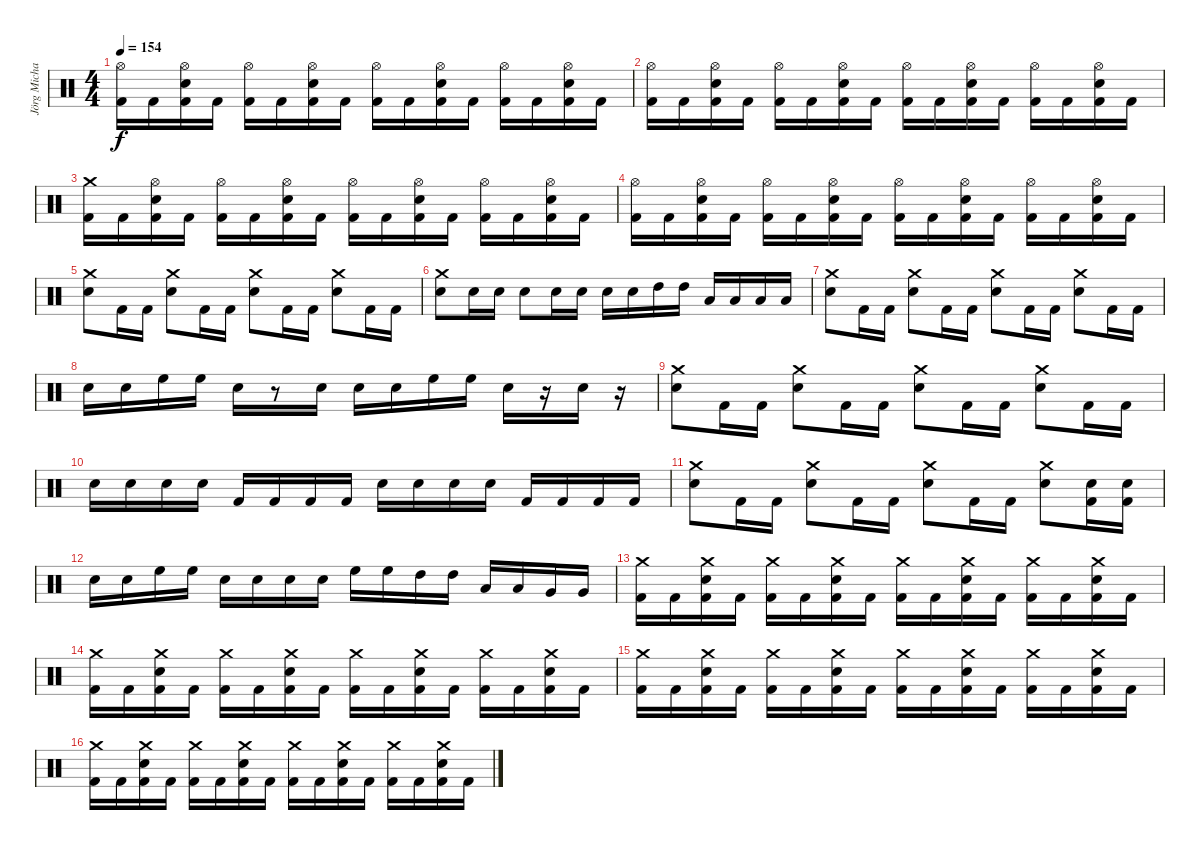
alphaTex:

\track ("Jörg Michael" "Jörg Micha") {instrument percussion}
\staff {score}
\articulation defaults
\ts (4 4)
\tempo 154
\clef neutral
\ks c
("Hi-Hat (open)" "Kick (hit) 2").16{dy f} "Kick (hit) 2".16 ("Snare (hit) 2" "Hi-Hat (open)" "Kick (hit) 2").16 "Kick (hit) 2".16 ("Hi-Hat (open)" "Kick (hit) 2").16 "Kick (hit) 2".16 ("Snare (hit) 2" "Hi-Hat (open)" "Kick (hit) 2").16 "Kick (hit) 2".16 ("Hi-Hat (open)" "Kick (hit) 2").16 "Kick (hit) 2".16 ("Snare (hit) 2" "Hi-Hat (open)" "Kick (hit) 2").16 "Kick (hit) 2".16 ("Hi-Hat (open)" "Kick (hit) 2").16 "Kick (hit) 2".16 ("Snare (hit) 2" "Hi-Hat (open)" "Kick (hit) 2").16 "Kick (hit) 2".16 |
("Hi-Hat (open)" "Kick (hit) 2").16 "Kick (hit) 2".16 ("Snare (hit) 2" "Hi-Hat (open)" "Kick (hit) 2").16 "Kick (hit) 2".16 ("Hi-Hat (open)" "Kick (hit) 2").16 "Kick (hit) 2".16 ("Snare (hit) 2" "Hi-Hat (open)" "Kick (hit) 2").16 "Kick (hit) 2".16 ("Hi-Hat (open)" "Kick (hit) 2").16 "Kick (hit) 2".16 ("Snare (hit) 2" "Hi-Hat (open)" "Kick (hit) 2").16 "Kick (hit) 2".16 ("Hi-Hat (open)" "Kick (hit) 2").16 "Kick (hit) 2".16 ("Snare (hit) 2" "Hi-Hat (open)" "Kick (hit) 2").16 "Kick (hit) 2".16 |
("Crash medium (hit)" "Kick (hit) 2").16 "Kick (hit) 2".16 ("Snare (hit) 2" "Hi-Hat (open)" "Kick (hit) 2").16 "Kick (hit) 2".16 ("Hi-Hat (open)" "Kick (hit) 2").16 "Kick (hit) 2".16 ("Snare (hit) 2" "Hi-Hat (open)" "Kick (hit) 2").16 "Kick (hit) 2".16 ("Hi-Hat (open)" "Kick (hit) 2").16 "Kick (hit) 2".16 ("Snare (hit) 2" "Hi-Hat (open)" "Kick (hit) 2").16 "Kick (hit) 2".16 ("Hi-Hat (open)" "Kick (hit) 2").16 "Kick (hit) 2".16 ("Snare (hit) 2" "Hi-Hat (open)" "Kick (hit) 2").16 "Kick (hit) 2".16 |
("Hi-Hat (open)" "Kick (hit) 2").16 "Kick (hit) 2".16 ("Snare (hit) 2" "Hi-Hat (open)" "Kick (hit) 2").16 "Kick (hit) 2".16 ("Hi-Hat (open)" "Kick (hit) 2").16 "Kick (hit) 2".16 ("Snare (hit) 2" "Hi-Hat (open)" "Kick (hit) 2").16 "Kick (hit) 2".16 ("Hi-Hat (open)" "Kick (hit) 2").16 "Kick (hit) 2".16 ("Snare (hit) 2" "Hi-Hat (open)" "Kick (hit) 2").16 "Kick (hit) 2".16 ("Hi-Hat (open)" "Kick (hit) 2").16 "Kick (hit) 2".16 ("Snare (hit) 2" "Hi-Hat (open)" "Kick (hit) 2").16 "Kick (hit) 2".16 |
("Snare (hit) 2" "Crash medium (hit)").8 "Kick (hit) 2".16 "Kick (hit) 2".16 ("Snare (hit) 2" "Crash medium (hit)").8 "Kick (hit) 2".16 "Kick (hit) 2".16 ("Snare (hit) 2" "Crash medium (hit)").8 "Kick (hit) 2".16 "Kick (hit) 2".16 ("Snare (hit) 2" "Crash medium (hit)").8 "Kick (hit) 2".16 "Kick (hit) 2".16 |
("Snare (hit) 2" "Crash medium (hit)").8 "Snare (hit) 2".16 "Snare (hit) 2".16 "Snare (hit) 2".8 "Snare (hit) 2".16 "Snare (hit) 2".16 "Snare (hit) 2".16 "Snare (hit) 2".16 "High Tom (hit)".16 "High Tom (hit)".16 "Low Tom (hit)".16 "Low Tom (hit)".16 "Low Tom (hit)".16 "Low Tom (hit)".16 |
("Snare (hit) 2" "Crash medium (hit)").8 "Kick (hit) 2".16 "Kick (hit) 2".16 ("Snare (hit) 2" "Crash medium (hit)").8 "Kick (hit) 2".16 "Kick (hit) 2".16 ("Snare (hit) 2" "Crash medium (hit)").8 "Kick (hit) 2".16 "Kick (hit) 2".16 ("Snare (hit) 2" "Crash medium (hit)").8 "Kick (hit) 2".16 "Kick (hit) 2".16 |
"Snare (hit) 2".16 "Snare (hit) 2".16 "High Floor Tom (hit)".16 "High Floor Tom (hit)".16 "Snare (hit) 2".16 r.8 "Snare (hit) 2".16 "Snare (hit) 2".16 "Snare (hit) 2".16 "High Floor Tom (hit)".16 "High Floor Tom (hit)".16 "Snare (hit) 2".16 r.16 "Snare (hit) 2".16 r.16 |
("Snare (hit) 2" "Crash medium (hit)").8 "Kick (hit) 2".16 "Kick (hit) 2".16 ("Snare (hit) 2" "Crash medium (hit)").8 "Kick (hit) 2".16 "Kick (hit) 2".16 ("Snare (hit) 2" "Crash medium (hit)").8 "Kick (hit) 2".16 "Kick (hit) 2".16 ("Snare (hit) 2" "Crash medium (hit)").8 "Kick (hit) 2".16 "Kick (hit) 2".16 |
"Snare (hit) 2".16 "Snare (hit) 2".16 "Snare (hit) 2".16 "Snare (hit) 2".16 "Kick (hit) 2".16 "Kick (hit) 2".16 "Kick (hit) 2".16 "Kick (hit) 2".16 "Snare (hit) 2".16 "Snare (hit) 2".16 "Snare (hit) 2".16 "Snare (hit) 2".16 "Kick (hit) 2".16 "Kick (hit) 2".16 "Kick (hit) 2".16 "Kick (hit) 2".16 |
("Snare (hit) 2" "Crash medium (hit)").8 "Kick (hit) 2".16 "Kick (hit) 2".16 ("Snare (hit) 2" "Crash medium (hit)").8 "Kick (hit) 2".16 "Kick (hit) 2".16 ("Snare (hit) 2" "Crash medium (hit)").8 "Kick (hit) 2".16 "Kick (hit) 2".16 ("Snare (hit) 2" "Crash medium (hit)").8 ("Snare (hit) 2" "Kick (hit) 2").16 ("Snare (hit) 2" "Kick (hit) 2").16 |
"Snare (hit) 2".16 "Snare (hit) 2".16 "High Floor Tom (hit)".16 "High Floor Tom (hit)".16 "Snare (hit) 2".16 "Snare (hit) 2".16 "Snare (hit) 2".16 "Snare (hit) 2".16 "High Floor Tom (hit)".16 "High Floor Tom (hit)".16 "High Tom (hit)".16 "High Tom (hit)".16 "Low Tom (hit)".16 "Low Tom (hit)".16 "Very Low Tom (hit)".16 "Very Low Tom (hit)".16 |
("Crash medium (hit)" "Kick (hit) 2").16 "Kick (hit) 2".16 ("Snare (hit) 2" "Crash medium (hit)" "Kick (hit) 2").16 "Kick (hit) 2".16 ("Crash medium (hit)" "Kick (hit) 2").16 "Kick (hit) 2".16 ("Snare (hit) 2" "Crash medium (hit)" "Kick (hit) 2").16 "Kick (hit) 2".16 ("Crash medium (hit)" "Kick (hit) 2").16 "Kick (hit) 2".16 ("Snare (hit) 2" "Crash medium (hit)" "Kick (hit) 2").16 "Kick (hit) 2".16 ("Crash medium (hit)" "Kick (hit) 2").16 "Kick (hit) 2".16 ("Snare (hit) 2" "Crash medium (hit)" "Kick (hit) 2").16 "Kick (hit) 2".16 |
("Crash medium (hit)" "Kick (hit) 2").16 "Kick (hit) 2".16 ("Snare (hit) 2" "Crash medium (hit)" "Kick (hit) 2").16 "Kick (hit) 2".16 ("Crash medium (hit)" "Kick (hit) 2").16 "Kick (hit) 2".16 ("Snare (hit) 2" "Crash medium (hit)" "Kick (hit) 2").16 "Kick (hit) 2".16 ("Crash medium (hit)" "Kick (hit) 2").16 "Kick (hit) 2".16 ("Snare (hit) 2" "Crash medium (hit)" "Kick (hit) 2").16 "Kick (hit) 2".16 ("Crash medium (hit)" "Kick (hit) 2").16 "Kick (hit) 2".16 ("Snare (hit) 2" "Crash medium (hit)" "Kick (hit) 2").16 "Kick (hit) 2".16 |
("Crash medium (hit)" "Kick (hit) 2").16 "Kick (hit) 2".16 ("Snare (hit) 2" "Crash medium (hit)" "Kick (hit) 2").16 "Kick (hit) 2".16 ("Crash medium (hit)" "Kick (hit) 2").16 "Kick (hit) 2".16 ("Snare (hit) 2" "Crash medium (hit)" "Kick (hit) 2").16 "Kick (hit) 2".16 ("Crash medium (hit)" "Kick (hit) 2").16 "Kick (hit) 2".16 ("Snare (hit) 2" "Crash medium (hit)" "Kick (hit) 2").16 "Kick (hit) 2".16 ("Crash medium (hit)" "Kick (hit) 2").16 "Kick (hit) 2".16 ("Snare (hit) 2" "Crash medium (hit)" "Kick (hit) 2").16 "Kick (hit) 2".16 |
("Crash medium (hit)" "Kick (hit) 2").16 "Kick (hit) 2".16 ("Snare (hit) 2" "Crash medium (hit)" "Kick (hit) 2").16 "Kick (hit) 2".16 ("Crash medium (hit)" "Kick (hit) 2").16 "Kick (hit) 2".16 ("Snare (hit) 2" "Crash medium (hit)" "Kick (hit) 2").16 "Kick (hit) 2".16 ("Crash medium (hit)" "Kick (hit) 2").16 "Kick (hit) 2".16 ("Snare (hit) 2" "Crash medium (hit)" "Kick (hit) 2").16 "Kick (hit) 2".16 ("Crash medium (hit)" "Kick (hit) 2").16 "Kick (hit) 2".16 ("Snare (hit) 2" "Crash medium (hit)" "Kick (hit) 2").16 "Kick (hit) 2".16
